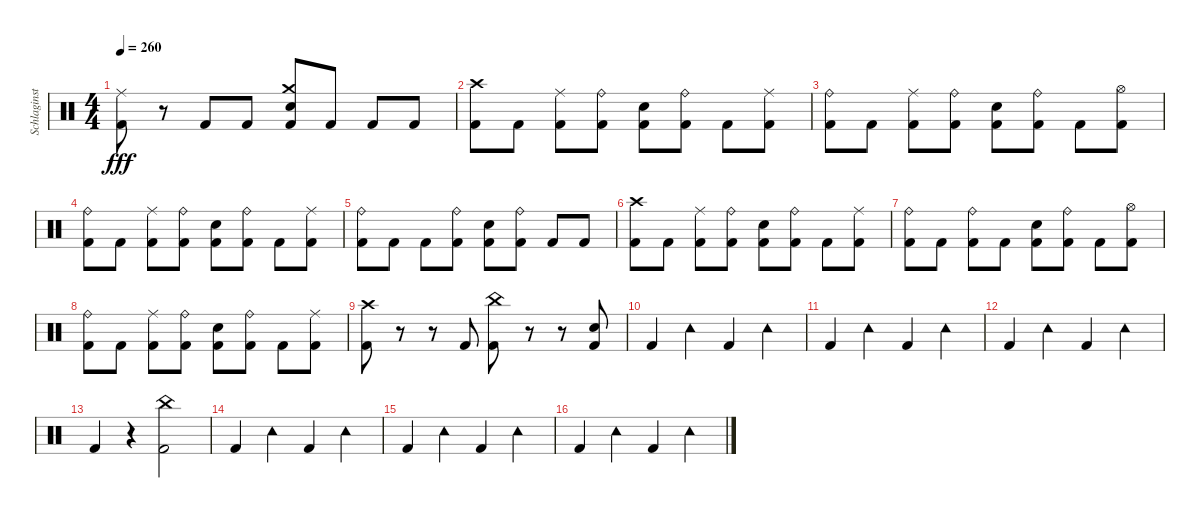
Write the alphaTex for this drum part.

\track ("Schlaginstrumente - Auswahl" "Schlaginst") {instrument percussion}
\staff {score}
\articulation defaults
\ts (4 4)
\tempo 260
\clef neutral
\ks c
("Ride (middle)" "Kick (hit) 2").8{dy fff} r.8 "Kick (hit) 2".8 "Kick (hit) 2".8 ("Crash medium (hit)" "Snare (hit) 2" "Kick (hit) 2").8 "Kick (hit) 2".8 "Kick (hit) 2".8 "Kick (hit) 2".8 |
("Crash high (hit)" "Kick (hit) 2").8 "Kick (hit) 2".8 ("Ride (middle)" "Kick (hit) 2").8 ("Ride (bell)" "Kick (hit) 2").8 ("Snare (hit) 2" "Kick (hit) 2").8 ("Ride (bell)" "Kick (hit) 2").8 "Kick (hit) 2".8 ("Ride (middle)" "Kick (hit) 2").8 |
("Ride (bell)" "Kick (hit) 2").8 "Kick (hit) 2".8 ("Ride (middle)" "Kick (hit) 2").8 ("Ride (bell)" "Kick (hit) 2").8 ("Snare (hit) 2" "Kick (hit) 2").8 ("Ride (bell)" "Kick (hit) 2").8 "Kick (hit) 2".8 ("Hi-Hat (open)" "Kick (hit) 2").8 |
("Ride (bell)" "Kick (hit) 2").8 "Kick (hit) 2".8 ("Ride (middle)" "Kick (hit) 2").8 ("Ride (bell)" "Kick (hit) 2").8 ("Snare (hit) 2" "Kick (hit) 2").8 ("Ride (bell)" "Kick (hit) 2").8 "Kick (hit) 2".8 ("Ride (middle)" "Kick (hit) 2").8 |
("Ride (bell)" "Kick (hit) 2").8 "Kick (hit) 2".8 "Kick (hit) 2".8 ("Ride (bell)" "Kick (hit) 2").8 ("Snare (hit) 2" "Kick (hit) 2").8 ("Ride (bell)" "Kick (hit) 2").8 "Kick (hit) 2".8 "Kick (hit) 2".8 |
("Crash high (hit)" "Kick (hit) 2").8 "Kick (hit) 2".8 ("Ride (middle)" "Kick (hit) 2").8 ("Ride (bell)" "Kick (hit) 2").8 ("Snare (hit) 2" "Kick (hit) 2").8 ("Ride (bell)" "Kick (hit) 2").8 "Kick (hit) 2".8 ("Ride (middle)" "Kick (hit) 2").8 |
("Ride (bell)" "Kick (hit) 2").8 "Kick (hit) 2".8 ("Ride (bell)" "Kick (hit) 2").8 "Kick (hit) 2".8 ("Snare (hit) 2" "Kick (hit) 2").8 ("Ride (bell)" "Kick (hit) 2").8 "Kick (hit) 2".8 ("Hi-Hat (open)" "Kick (hit) 2").8 |
("Ride (bell)" "Kick (hit) 2").8 "Kick (hit) 2".8 ("Ride (middle)" "Kick (hit) 2").8 ("Ride (bell)" "Kick (hit) 2").8 ("Snare (hit) 2" "Kick (hit) 2").8 ("Ride (bell)" "Kick (hit) 2").8 "Kick (hit) 2".8 ("Ride (middle)" "Kick (hit) 2").8 |
("Crash high (hit)" "Kick (hit) 2").8 r.8 r.8 "Kick (hit) 2".8 ("China (hit)" "Kick (hit) 2").8 r.8 r.8 ("Snare (hit) 2" "Kick (hit) 2").8 |
"Kick (hit) 2".4 "Tambourine (hit)".4 "Kick (hit) 2".4 "Tambourine (hit)".4 |
"Kick (hit) 2".4 "Tambourine (hit)".4 "Kick (hit) 2".4 "Tambourine (hit)".4 |
"Kick (hit) 2".4 "Tambourine (hit)".4 "Kick (hit) 2".4 "Tambourine (hit)".4 |
"Kick (hit) 2".4 r.4 ("China (hit)" "Kick (hit) 2").2 |
"Kick (hit) 2".4 "Tambourine (hit)".4 "Kick (hit) 2".4 "Tambourine (hit)".4 |
"Kick (hit) 2".4 "Tambourine (hit)".4 "Kick (hit) 2".4 "Tambourine (hit)".4 |
"Kick (hit) 2".4 "Tambourine (hit)".4 "Kick (hit) 2".4 "Tambourine (hit)".4
